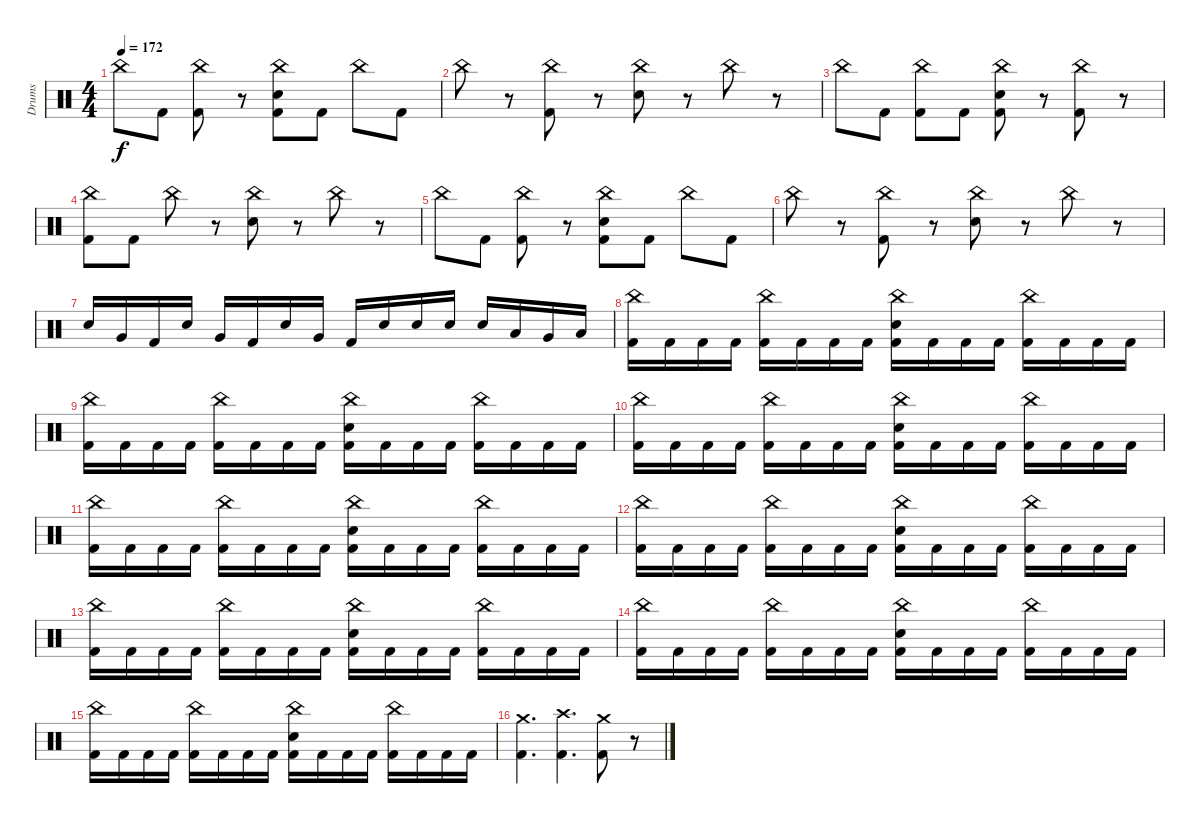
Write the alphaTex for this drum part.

\track ("Drums" "Drums") {instrument percussion}
\staff {score}
\articulation defaults
\ts (4 4)
\tempo 172
\clef neutral
\ks c "China (hit)".8{dy f} "Kick (hit) 2".8
("China (hit)" "Kick (hit) 2").8 r.8 ("China (hit)" "Electric Snare (hit)" "Kick (hit) 2").8 "Kick (hit) 2".8 "China (hit)".8 "Kick (hit) 2".8 |
"China (hit)".8 r.8 ("China (hit)" "Kick (hit) 2").8 r.8 ("China (hit)" "Electric Snare (hit)").8 r.8 "China (hit)".8 r.8 |
"China (hit)".8 "Kick (hit) 2".8 ("China (hit)" "Kick (hit) 2").8 "Kick (hit) 2".8 ("China (hit)" "Electric Snare (hit)" "Kick (hit) 2").8 r.8 ("China (hit)" "Kick (hit) 2").8 r.8 |
("China (hit)" "Kick (hit) 2").8 "Kick (hit) 2".8 "China (hit)".8 r.8 ("China (hit)" "Electric Snare (hit)").8 r.8 "China (hit)".8 r.8 |
"China (hit)".8 "Kick (hit) 2".8 ("China (hit)" "Kick (hit) 2").8 r.8 ("China (hit)" "Electric Snare (hit)" "Kick (hit) 2").8 "Kick (hit) 2".8 "China (hit)".8 "Kick (hit) 2".8 |
"China (hit)".8 r.8 ("China (hit)" "Kick (hit) 2").8 r.8 ("China (hit)" "Electric Snare (hit)").8 r.8 "China (hit)".8 r.8 |
"Electric Snare (hit)".16 "Very Low Tom (hit)".16 "Kick (hit) 2".16 "Electric Snare (hit)".16 "Very Low Tom (hit)".16 "Kick (hit) 2".16 "Electric Snare (hit)".16 "Very Low Tom (hit)".16 "Kick (hit) 2".16 "Electric Snare (hit)".16 "Electric Snare (hit)".16 "Electric Snare (hit)".16 "Electric Snare (hit)".16 "Low Tom (hit)".16 "Very Low Tom (hit)".16 "Low Floor Tom (hit)".16 |
("China (hit)" "Kick (hit) 2").16 "Kick (hit) 2".16 "Kick (hit) 2".16 "Kick (hit) 2".16 ("China (hit)" "Kick (hit) 2").16 "Kick (hit) 2".16 "Kick (hit) 2".16 "Kick (hit) 2".16 ("China (hit)" "Electric Snare (hit)" "Kick (hit) 2").16 "Kick (hit) 2".16 "Kick (hit) 2".16 "Kick (hit) 2".16 ("China (hit)" "Kick (hit) 2").16 "Kick (hit) 2".16 "Kick (hit) 2".16 "Kick (hit) 2".16 |
("China (hit)" "Kick (hit) 2").16 "Kick (hit) 2".16 "Kick (hit) 2".16 "Kick (hit) 2".16 ("China (hit)" "Kick (hit) 2").16 "Kick (hit) 2".16 "Kick (hit) 2".16 "Kick (hit) 2".16 ("China (hit)" "Electric Snare (hit)" "Kick (hit) 2").16 "Kick (hit) 2".16 "Kick (hit) 2".16 "Kick (hit) 2".16 ("China (hit)" "Kick (hit) 2").16 "Kick (hit) 2".16 "Kick (hit) 2".16 "Kick (hit) 2".16 |
("China (hit)" "Kick (hit) 2").16 "Kick (hit) 2".16 "Kick (hit) 2".16 "Kick (hit) 2".16 ("China (hit)" "Kick (hit) 2").16 "Kick (hit) 2".16 "Kick (hit) 2".16 "Kick (hit) 2".16 ("China (hit)" "Electric Snare (hit)" "Kick (hit) 2").16 "Kick (hit) 2".16 "Kick (hit) 2".16 "Kick (hit) 2".16 ("China (hit)" "Kick (hit) 2").16 "Kick (hit) 2".16 "Kick (hit) 2".16 "Kick (hit) 2".16 |
("China (hit)" "Kick (hit) 2").16 "Kick (hit) 2".16 "Kick (hit) 2".16 "Kick (hit) 2".16 ("China (hit)" "Kick (hit) 2").16 "Kick (hit) 2".16 "Kick (hit) 2".16 "Kick (hit) 2".16 ("China (hit)" "Electric Snare (hit)" "Kick (hit) 2").16 "Kick (hit) 2".16 "Kick (hit) 2".16 "Kick (hit) 2".16 ("China (hit)" "Kick (hit) 2").16 "Kick (hit) 2".16 "Kick (hit) 2".16 "Kick (hit) 2".16 |
("China (hit)" "Kick (hit) 2").16 "Kick (hit) 2".16 "Kick (hit) 2".16 "Kick (hit) 2".16 ("China (hit)" "Kick (hit) 2").16 "Kick (hit) 2".16 "Kick (hit) 2".16 "Kick (hit) 2".16 ("China (hit)" "Electric Snare (hit)" "Kick (hit) 2").16 "Kick (hit) 2".16 "Kick (hit) 2".16 "Kick (hit) 2".16 ("China (hit)" "Kick (hit) 2").16 "Kick (hit) 2".16 "Kick (hit) 2".16 "Kick (hit) 2".16 |
("China (hit)" "Kick (hit) 2").16 "Kick (hit) 2".16 "Kick (hit) 2".16 "Kick (hit) 2".16 ("China (hit)" "Kick (hit) 2").16 "Kick (hit) 2".16 "Kick (hit) 2".16 "Kick (hit) 2".16 ("China (hit)" "Electric Snare (hit)" "Kick (hit) 2").16 "Kick (hit) 2".16 "Kick (hit) 2".16 "Kick (hit) 2".16 ("China (hit)" "Kick (hit) 2").16 "Kick (hit) 2".16 "Kick (hit) 2".16 "Kick (hit) 2".16 |
("China (hit)" "Kick (hit) 2").16 "Kick (hit) 2".16 "Kick (hit) 2".16 "Kick (hit) 2".16 ("China (hit)" "Kick (hit) 2").16 "Kick (hit) 2".16 "Kick (hit) 2".16 "Kick (hit) 2".16 ("China (hit)" "Electric Snare (hit)" "Kick (hit) 2").16 "Kick (hit) 2".16 "Kick (hit) 2".16 "Kick (hit) 2".16 ("China (hit)" "Kick (hit) 2").16 "Kick (hit) 2".16 "Kick (hit) 2".16 "Kick (hit) 2".16 |
("China (hit)" "Kick (hit) 2").16 "Kick (hit) 2".16 "Kick (hit) 2".16 "Kick (hit) 2".16 ("China (hit)" "Kick (hit) 2").16 "Kick (hit) 2".16 "Kick (hit) 2".16 "Kick (hit) 2".16 ("China (hit)" "Electric Snare (hit)" "Kick (hit) 2").16 "Kick (hit) 2".16 "Kick (hit) 2".16 "Kick (hit) 2".16 ("China (hit)" "Kick (hit) 2").16 "Kick (hit) 2".16 "Kick (hit) 2".16 "Kick (hit) 2".16 |
("Crash medium (hit)" "Kick (hit) 2").4{d} ("Crash high (hit)" "Kick (hit) 2").4{d} ("Crash medium (hit)" "Kick (hit) 2").8 r.8
